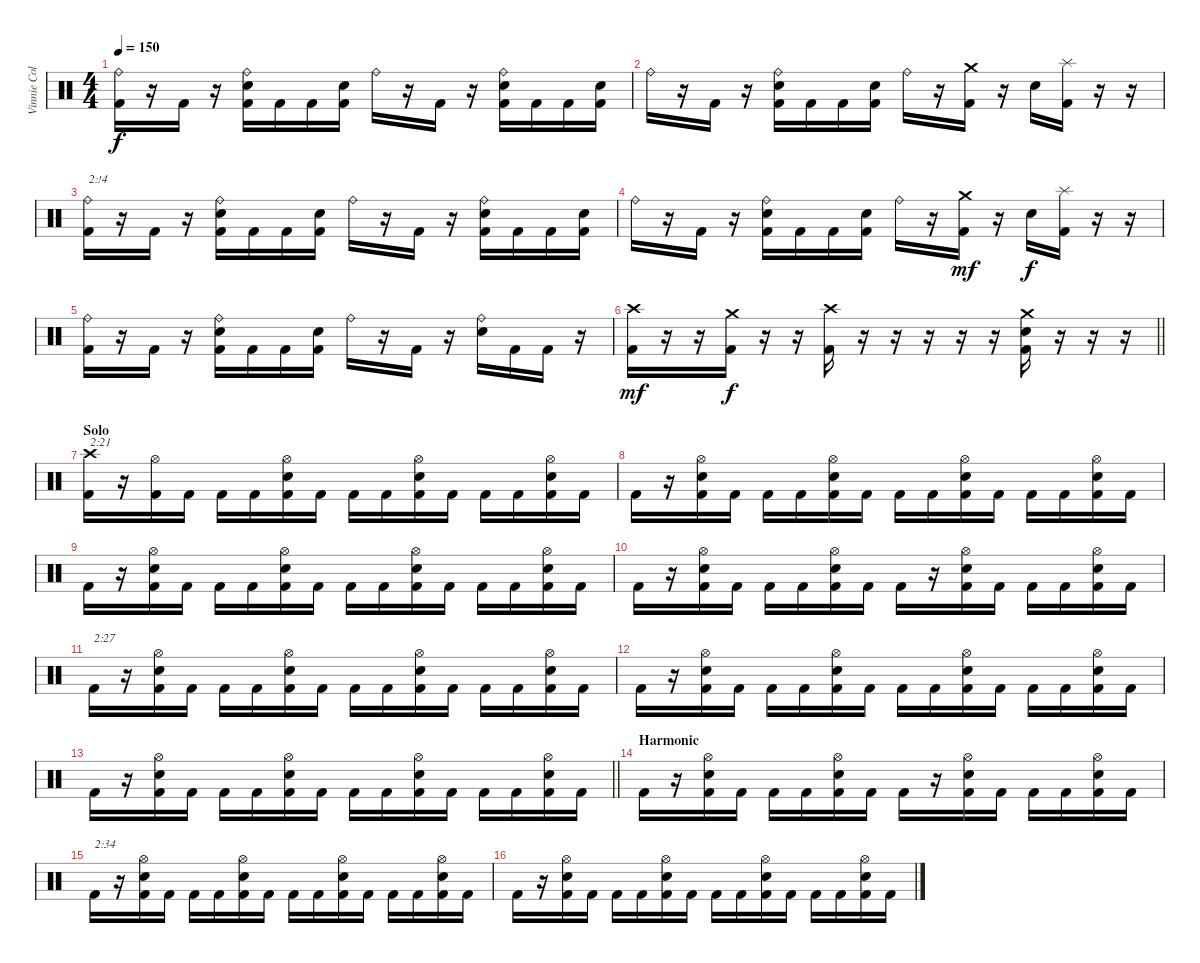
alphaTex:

\track ("Vinnie Colaiuta" "Vinnie Col") {instrument percussion}
\staff {score}
\articulation defaults
\ts (4 4)
\tempo 150
\clef neutral
\ks c
("Ride (bell)" "Kick (hit) 2").16{dy f} r.16 "Kick (hit) 2".16 r.16 ("Ride (bell)" "Electric Snare (hit)" "Kick (hit) 2").16 "Kick (hit) 2".16 "Kick (hit) 2".16 ("Electric Snare (hit)" "Kick (hit) 2").16 "Ride (bell)".16 r.16 "Kick (hit) 2".16 r.16 ("Ride (bell)" "Electric Snare (hit)" "Kick (hit) 2").16 "Kick (hit) 2".16 "Kick (hit) 2".16 ("Electric Snare (hit)" "Kick (hit) 2").16 |
"Ride (bell)".16 r.16 "Kick (hit) 2".16 r.16 ("Ride (bell)" "Electric Snare (hit)" "Kick (hit) 2").16 "Kick (hit) 2".16 "Kick (hit) 2".16 ("Electric Snare (hit)" "Kick (hit) 2").16 "Ride (bell)".16 r.16 ("Crash medium (hit)" "Kick (hit) 2").16 r.16 "Electric Snare (hit)".16 ("Splash (hit)" "Kick (hit) 2").16 r.16 r.16 |
("Ride (bell)" "Kick (hit) 2").16{txt "2:!4"} r.16 "Kick (hit) 2".16 r.16 ("Ride (bell)" "Electric Snare (hit)" "Kick (hit) 2").16 "Kick (hit) 2".16 "Kick (hit) 2".16 ("Electric Snare (hit)" "Kick (hit) 2").16 "Ride (bell)".16 r.16 "Kick (hit) 2".16 r.16 ("Ride (bell)" "Electric Snare (hit)" "Kick (hit) 2").16 "Kick (hit) 2".16 "Kick (hit) 2".16 ("Electric Snare (hit)" "Kick (hit) 2").16 |
"Ride (bell)".16 r.16 "Kick (hit) 2".16 r.16 ("Ride (bell)" "Electric Snare (hit)" "Kick (hit) 2").16 "Kick (hit) 2".16 "Kick (hit) 2".16 ("Electric Snare (hit)" "Kick (hit) 2").16 "Ride (bell)".16 r.16 ("Crash medium (hit)" "Kick (hit) 2").16{dy mf} r.16 "Electric Snare (hit)".16{dy f} ("Splash (hit)" "Kick (hit) 2").16 r.16 r.16 |
("Ride (bell)" "Kick (hit) 2").16 r.16 "Kick (hit) 2".16 r.16 ("Ride (bell)" "Electric Snare (hit)" "Kick (hit) 2").16 "Kick (hit) 2".16 "Kick (hit) 2".16 ("Electric Snare (hit)" "Kick (hit) 2").16 "Ride (bell)".16 r.16 "Kick (hit) 2".16 r.16 ("Ride (bell)" "Electric Snare (hit)").16 "Kick (hit) 2".16 "Kick (hit) 2".16 r.16 |
\barLineRight lightlight
("Crash high (hit)" "Kick (hit) 2").16{dy mf} r.16 r.16 ("Crash medium (hit)" "Kick (hit) 2").16{dy f} r.16 r.16 ("Crash high (hit)" "Kick (hit) 2").16 r.16 r.16 r.16 r.16 r.16 ("Crash medium (hit)" "Electric Snare (hit)" "Kick (hit) 2").16 r.16 r.16 r.16 |
\section ("" "Solo")
("Crash high (hit)" "Kick (hit) 2").16{txt "2:21"} r.16 ("Hi-Hat (open)" "Kick (hit) 2").16 "Kick (hit) 2".16 "Kick (hit) 2".16 "Kick (hit) 2".16 ("Hi-Hat (open)" "Electric Snare (hit)" "Kick (hit) 2").16 "Kick (hit) 2".16 "Kick (hit) 2".16 "Kick (hit) 2".16 ("Hi-Hat (open)" "Electric Snare (hit)" "Kick (hit) 2").16 "Kick (hit) 2".16 "Kick (hit) 2".16 "Kick (hit) 2".16 ("Hi-Hat (open)" "Electric Snare (hit)" "Kick (hit) 2").16 "Kick (hit) 2".16 |
"Kick (hit) 2".16 r.16 ("Hi-Hat (open)" "Electric Snare (hit)" "Kick (hit) 2").16 "Kick (hit) 2".16 "Kick (hit) 2".16 "Kick (hit) 2".16 ("Hi-Hat (open)" "Electric Snare (hit)" "Kick (hit) 2").16 "Kick (hit) 2".16 "Kick (hit) 2".16 "Kick (hit) 2".16 ("Hi-Hat (open)" "Electric Snare (hit)" "Kick (hit) 2").16 "Kick (hit) 2".16 "Kick (hit) 2".16 "Kick (hit) 2".16 ("Hi-Hat (open)" "Electric Snare (hit)" "Kick (hit) 2").16 "Kick (hit) 2".16 |
"Kick (hit) 2".16 r.16 ("Hi-Hat (open)" "Electric Snare (hit)" "Kick (hit) 2").16 "Kick (hit) 2".16 "Kick (hit) 2".16 "Kick (hit) 2".16 ("Hi-Hat (open)" "Electric Snare (hit)" "Kick (hit) 2").16 "Kick (hit) 2".16 "Kick (hit) 2".16 "Kick (hit) 2".16 ("Hi-Hat (open)" "Electric Snare (hit)" "Kick (hit) 2").16 "Kick (hit) 2".16 "Kick (hit) 2".16 "Kick (hit) 2".16 ("Hi-Hat (open)" "Electric Snare (hit)" "Kick (hit) 2").16 "Kick (hit) 2".16 |
"Kick (hit) 2".16 r.16 ("Hi-Hat (open)" "Electric Snare (hit)" "Kick (hit) 2").16 "Kick (hit) 2".16 "Kick (hit) 2".16 "Kick (hit) 2".16 ("Hi-Hat (open)" "Electric Snare (hit)" "Kick (hit) 2").16 "Kick (hit) 2".16 "Kick (hit) 2".16 r.16 ("Hi-Hat (open)" "Electric Snare (hit)" "Kick (hit) 2").16 "Kick (hit) 2".16 "Kick (hit) 2".16 "Kick (hit) 2".16 ("Hi-Hat (open)" "Electric Snare (hit)" "Kick (hit) 2").16 "Kick (hit) 2".16 |
"Kick (hit) 2".16{txt "2:27"} r.16 ("Hi-Hat (open)" "Electric Snare (hit)" "Kick (hit) 2").16 "Kick (hit) 2".16 "Kick (hit) 2".16 "Kick (hit) 2".16 ("Hi-Hat (open)" "Electric Snare (hit)" "Kick (hit) 2").16 "Kick (hit) 2".16 "Kick (hit) 2".16 "Kick (hit) 2".16 ("Hi-Hat (open)" "Electric Snare (hit)" "Kick (hit) 2").16 "Kick (hit) 2".16 "Kick (hit) 2".16 "Kick (hit) 2".16 ("Hi-Hat (open)" "Electric Snare (hit)" "Kick (hit) 2").16 "Kick (hit) 2".16 |
"Kick (hit) 2".16 r.16 ("Hi-Hat (open)" "Electric Snare (hit)" "Kick (hit) 2").16 "Kick (hit) 2".16 "Kick (hit) 2".16 "Kick (hit) 2".16 ("Hi-Hat (open)" "Electric Snare (hit)" "Kick (hit) 2").16 "Kick (hit) 2".16 "Kick (hit) 2".16 "Kick (hit) 2".16 ("Hi-Hat (open)" "Electric Snare (hit)" "Kick (hit) 2").16 "Kick (hit) 2".16 "Kick (hit) 2".16 "Kick (hit) 2".16 ("Hi-Hat (open)" "Electric Snare (hit)" "Kick (hit) 2").16 "Kick (hit) 2".16 |
\barLineRight lightlight "Kick (hit) 2".16
r.16 ("Hi-Hat (open)" "Electric Snare (hit)" "Kick (hit) 2").16 "Kick (hit) 2".16 "Kick (hit) 2".16 "Kick (hit) 2".16 ("Hi-Hat (open)" "Electric Snare (hit)" "Kick (hit) 2").16 "Kick (hit) 2".16 "Kick (hit) 2".16 "Kick (hit) 2".16 ("Hi-Hat (open)" "Electric Snare (hit)" "Kick (hit) 2").16 "Kick (hit) 2".16 "Kick (hit) 2".16 "Kick (hit) 2".16 ("Hi-Hat (open)" "Electric Snare (hit)" "Kick (hit) 2").16 "Kick (hit) 2".16 |
\section ("" "Harmonic")
"Kick (hit) 2".16 r.16 ("Hi-Hat (open)" "Electric Snare (hit)" "Kick (hit) 2").16 "Kick (hit) 2".16 "Kick (hit) 2".16 "Kick (hit) 2".16 ("Hi-Hat (open)" "Electric Snare (hit)" "Kick (hit) 2").16 "Kick (hit) 2".16 "Kick (hit) 2".16 r.16 ("Hi-Hat (open)" "Electric Snare (hit)" "Kick (hit) 2").16 "Kick (hit) 2".16 "Kick (hit) 2".16 "Kick (hit) 2".16 ("Hi-Hat (open)" "Electric Snare (hit)" "Kick (hit) 2").16 "Kick (hit) 2".16 |
"Kick (hit) 2".16{txt "2:34"} r.16 ("Hi-Hat (open)" "Electric Snare (hit)" "Kick (hit) 2").16 "Kick (hit) 2".16 "Kick (hit) 2".16 "Kick (hit) 2".16 ("Hi-Hat (open)" "Electric Snare (hit)" "Kick (hit) 2").16 "Kick (hit) 2".16 "Kick (hit) 2".16 "Kick (hit) 2".16 ("Hi-Hat (open)" "Electric Snare (hit)" "Kick (hit) 2").16 "Kick (hit) 2".16 "Kick (hit) 2".16 "Kick (hit) 2".16 ("Hi-Hat (open)" "Electric Snare (hit)" "Kick (hit) 2").16 "Kick (hit) 2".16 |
"Kick (hit) 2".16 r.16 ("Hi-Hat (open)" "Electric Snare (hit)" "Kick (hit) 2").16 "Kick (hit) 2".16 "Kick (hit) 2".16 "Kick (hit) 2".16 ("Hi-Hat (open)" "Electric Snare (hit)" "Kick (hit) 2").16 "Kick (hit) 2".16 "Kick (hit) 2".16 "Kick (hit) 2".16 ("Hi-Hat (open)" "Electric Snare (hit)" "Kick (hit) 2").16 "Kick (hit) 2".16 "Kick (hit) 2".16 "Kick (hit) 2".16 ("Hi-Hat (open)" "Electric Snare (hit)" "Kick (hit) 2").16 "Kick (hit) 2".16
